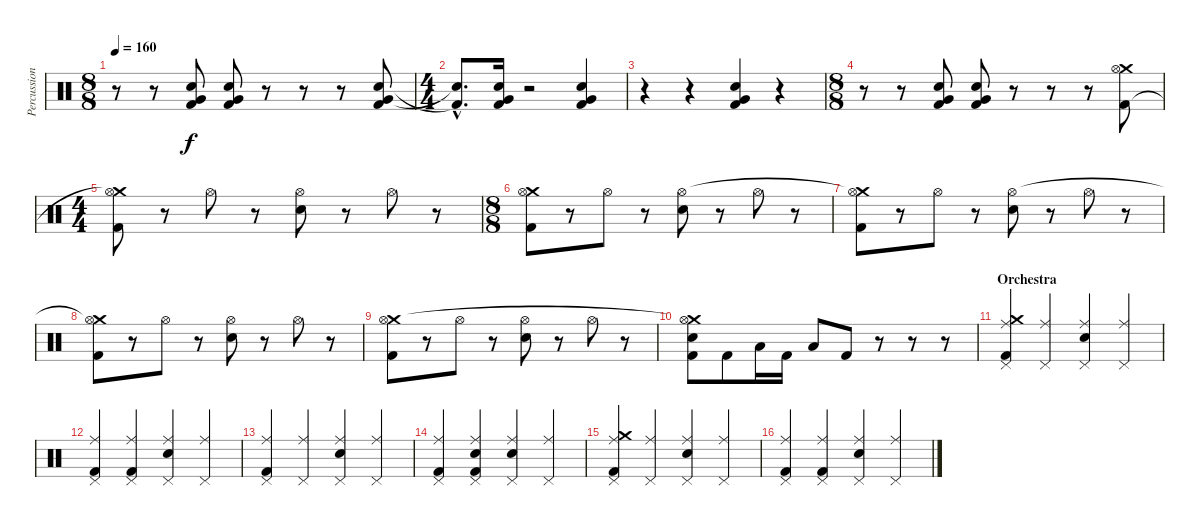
\track ("Percussion" "Percussion") {instrument percussion}
\staff {score}
\articulation defaults
\ts (8 8)
\tempo 160
\clef neutral
\ks c
r.8{dy f} r.8 ("Very Low Tom (hit)" "Kick (hit) 2" "Electric Snare (hit)").8 ("Very Low Tom (hit)" "Kick (hit) 2" "Electric Snare (hit)").8 r.8 r.8 r.8 ("Very Low Tom (hit)" "Electric Snare (hit)" "Kick (hit) 2").8 |
\ts (4 4)
("Electric Snare (hit)"{hac t} "Kick (hit) 2"{hac t}).8{d} ("Very Low Tom (hit)" "Electric Snare (hit)" "Kick (hit) 2").16 r.2 ("Very Low Tom (hit)" "Electric Snare (hit)" "Kick (hit) 2").4 |
r.4 r.4 ("Very Low Tom (hit)" "Kick (hit) 2" "Electric Snare (hit)").4 r.4 |
\ts (8 8)
r.8 r.8 ("Very Low Tom (hit)" "Kick (hit) 2" "Electric Snare (hit)").8 ("Very Low Tom (hit)" "Kick (hit) 2" "Electric Snare (hit)").8 r.8 r.8 r.8 ("Crash medium (hit)" "Kick (hit) 2" "Hi-Hat (open)").8 |
\ts (4 4)
("Kick (hit) 2" "Crash medium (hit)"{t} "Hi-Hat (open)").8 r.8 "Hi-Hat (open)".8 r.8 ("Electric Snare (hit)" "Hi-Hat (open)").8 r.8 "Hi-Hat (open)".8 r.8 |
\ts (8 8)
("Kick (hit) 2" "Crash medium (hit)" "Hi-Hat (open)").8 r.8 "Hi-Hat (open)".8 r.8 ("Electric Snare (hit)" "Hi-Hat (open)").8 r.8 "Hi-Hat (open)".8 r.8 |
("Kick (hit) 2" "Crash medium (hit)"{t} "Hi-Hat (open)").8 r.8 "Hi-Hat (open)".8 r.8 ("Electric Snare (hit)" "Hi-Hat (open)").8 r.8 "Hi-Hat (open)".8 r.8 |
("Kick (hit) 2" "Crash medium (hit)"{t} "Hi-Hat (open)").8 r.8 "Hi-Hat (open)".8 r.8 ("Electric Snare (hit)" "Hi-Hat (open)").8 r.8 "Hi-Hat (open)".8 r.8 |
("Kick (hit) 2" "Crash medium (hit)" "Hi-Hat (open)").8 r.8 "Hi-Hat (open)".8 r.8 ("Electric Snare (hit)" "Hi-Hat (open)").8 r.8 "Hi-Hat (open)".8 r.8 |
("Electric Snare (hit)" "Kick (hit) 2" "Crash medium (hit)"{t} "Hi-Hat (open)").8 "Kick (hit) 2".8 "Low Tom (hit)".16 "Kick (hit) 2".16 "Low Tom (hit)".8 "Kick (hit) 2".8 r.8 r.8 r.8 |
\section ("" "Orchestra")
("Ride (middle)" "Kick (hit) 2" "Pedal Hi-Hat (hit)" "Crash medium (hit)").4 ("Ride (middle)" "Pedal Hi-Hat (hit)").4 ("Ride (middle)" "Electric Snare (hit)" "Pedal Hi-Hat (hit)").4 ("Ride (middle)" "Pedal Hi-Hat (hit)").4 |
("Ride (middle)" "Kick (hit) 2" "Pedal Hi-Hat (hit)").4 ("Ride (middle)" "Kick (hit) 2" "Pedal Hi-Hat (hit)").4 ("Ride (middle)" "Electric Snare (hit)" "Pedal Hi-Hat (hit)").4 ("Ride (middle)" "Pedal Hi-Hat (hit)").4 |
("Ride (middle)" "Kick (hit) 2" "Pedal Hi-Hat (hit)").4 ("Ride (middle)" "Pedal Hi-Hat (hit)").4 ("Ride (middle)" "Electric Snare (hit)" "Pedal Hi-Hat (hit)").4 ("Ride (middle)" "Pedal Hi-Hat (hit)").4 |
("Ride (middle)" "Kick (hit) 2" "Pedal Hi-Hat (hit)").4 ("Ride (middle)" "Kick (hit) 2" "Pedal Hi-Hat (hit)" "Snare (hit)").4 ("Ride (middle)" "Electric Snare (hit)" "Pedal Hi-Hat (hit)").4 ("Ride (middle)" "Pedal Hi-Hat (hit)").4 |
("Ride (middle)" "Kick (hit) 2" "Pedal Hi-Hat (hit)" "Crash medium (hit)").4 ("Ride (middle)" "Pedal Hi-Hat (hit)").4 ("Ride (middle)" "Electric Snare (hit)" "Pedal Hi-Hat (hit)").4 ("Ride (middle)" "Pedal Hi-Hat (hit)").4 |
("Ride (middle)" "Kick (hit) 2" "Pedal Hi-Hat (hit)").4 ("Ride (middle)" "Kick (hit) 2" "Pedal Hi-Hat (hit)").4 ("Ride (middle)" "Electric Snare (hit)" "Pedal Hi-Hat (hit)").4 ("Ride (middle)" "Pedal Hi-Hat (hit)").4
